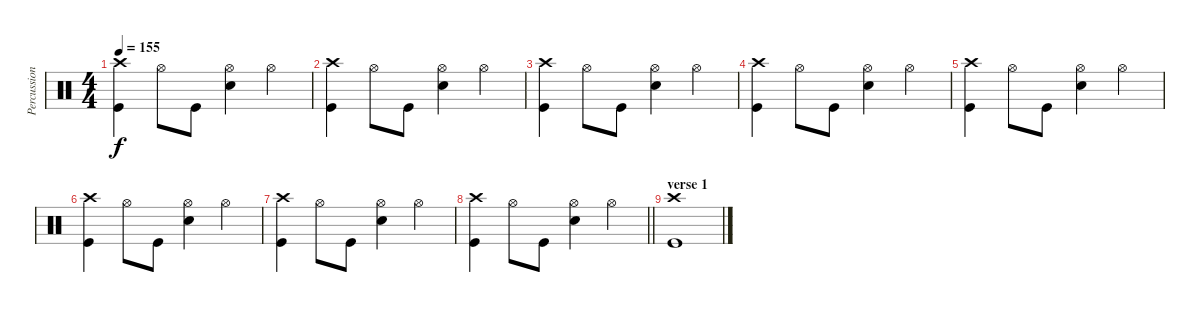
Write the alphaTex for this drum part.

\track ("Percussion" "Percussion") {instrument percussion}
\staff {score}
\articulation defaults
\ts (4 4)
\tempo 155
\clef neutral
\ks c
("Crash high (hit)" "Kick (hit)").4{dy f} "Hi-Hat (open)".8 "Kick (hit)".8 ("Hi-Hat (open)" "Electric Snare (hit)").4 "Hi-Hat (open)".4 |
("Crash high (hit)" "Kick (hit)").4 "Hi-Hat (open)".8 "Kick (hit)".8 ("Hi-Hat (open)" "Electric Snare (hit)").4 "Hi-Hat (open)".4 |
("Crash high (hit)" "Kick (hit)").4 "Hi-Hat (open)".8 "Kick (hit)".8 ("Hi-Hat (open)" "Electric Snare (hit)").4 "Hi-Hat (open)".4 |
("Crash high (hit)" "Kick (hit)").4 "Hi-Hat (open)".8 "Kick (hit)".8 ("Hi-Hat (open)" "Electric Snare (hit)").4 "Hi-Hat (open)".4 |
("Crash high (hit)" "Kick (hit)").4 "Hi-Hat (open)".8 "Kick (hit)".8 ("Hi-Hat (open)" "Electric Snare (hit)").4 "Hi-Hat (open)".4 |
("Crash high (hit)" "Kick (hit)").4 "Hi-Hat (open)".8 "Kick (hit)".8 ("Hi-Hat (open)" "Electric Snare (hit)").4 "Hi-Hat (open)".4 |
("Crash high (hit)" "Kick (hit)").4 "Hi-Hat (open)".8 "Kick (hit)".8 ("Hi-Hat (open)" "Electric Snare (hit)").4 "Hi-Hat (open)".4 |
\barLineRight lightlight
("Crash high (hit)" "Kick (hit)").4 "Hi-Hat (open)".8 "Kick (hit)".8 ("Hi-Hat (open)" "Electric Snare (hit)").4 "Hi-Hat (open)".4 |
\section ("" "verse 1")
("Crash high (hit)" "Kick (hit)").1
